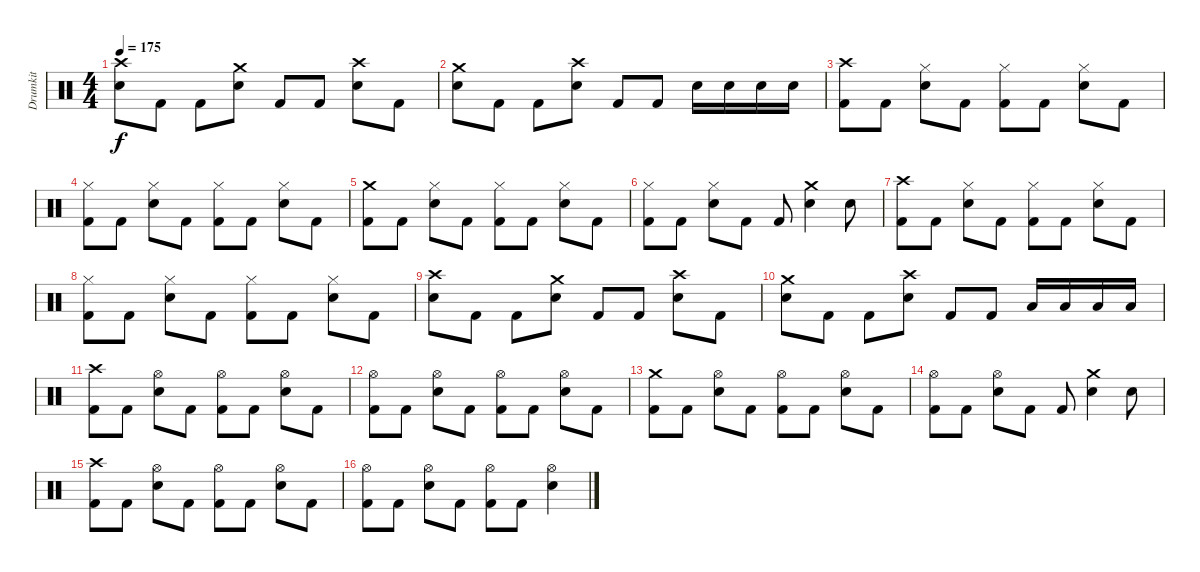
\track ("Drumkit" "Drumkit") {instrument percussion}
\staff {score}
\articulation defaults
\ts (4 4)
\tempo 175
\clef neutral
\ks c
("Crash high (hit)" "Electric Snare (hit)").8{dy f} "Kick (hit) 2".8 "Kick (hit) 2".8 ("Crash medium (hit)" "Electric Snare (hit)").8 "Kick (hit) 2".8 "Kick (hit) 2".8 ("Crash high (hit)" "Electric Snare (hit)").8 "Kick (hit) 2".8 |
("Crash medium (hit)" "Electric Snare (hit)").8 "Kick (hit) 2".8 "Kick (hit) 2".8 ("Crash high (hit)" "Electric Snare (hit)").8 "Kick (hit) 2".8 "Kick (hit) 2".8 "Electric Snare (hit)".16 "Electric Snare (hit)".16 "Electric Snare (hit)".16 "Electric Snare (hit)".16 |
("Crash high (hit)" "Kick (hit) 2").8 "Kick (hit) 2".8 ("Hi-Hat (closed)" "Electric Snare (hit)").8 "Kick (hit) 2".8 ("Hi-Hat (closed)" "Kick (hit) 2").8 "Kick (hit) 2".8 ("Hi-Hat (closed)" "Electric Snare (hit)").8 "Kick (hit) 2".8 |
("Hi-Hat (closed)" "Kick (hit) 2").8 "Kick (hit) 2".8 ("Hi-Hat (closed)" "Electric Snare (hit)").8 "Kick (hit) 2".8 ("Hi-Hat (closed)" "Kick (hit) 2").8 "Kick (hit) 2".8 ("Hi-Hat (closed)" "Electric Snare (hit)").8 "Kick (hit) 2".8 |
("Crash medium (hit)" "Kick (hit) 2").8 "Kick (hit) 2".8 ("Hi-Hat (closed)" "Electric Snare (hit)").8 "Kick (hit) 2".8 ("Hi-Hat (closed)" "Kick (hit) 2").8 "Kick (hit) 2".8 ("Hi-Hat (closed)" "Electric Snare (hit)").8 "Kick (hit) 2".8 |
("Hi-Hat (closed)" "Kick (hit) 2").8 "Kick (hit) 2".8 ("Hi-Hat (closed)" "Electric Snare (hit)").8 "Kick (hit) 2".8 "Kick (hit) 2".8 ("Crash medium (hit)" "Electric Snare (hit)").4 "Electric Snare (hit)".8 |
("Crash high (hit)" "Kick (hit) 2").8 "Kick (hit) 2".8 ("Hi-Hat (closed)" "Electric Snare (hit)").8 "Kick (hit) 2".8 ("Hi-Hat (closed)" "Kick (hit) 2").8 "Kick (hit) 2".8 ("Hi-Hat (closed)" "Electric Snare (hit)").8 "Kick (hit) 2".8 |
("Hi-Hat (closed)" "Kick (hit) 2").8 "Kick (hit) 2".8 ("Hi-Hat (closed)" "Electric Snare (hit)").8 "Kick (hit) 2".8 ("Hi-Hat (closed)" "Kick (hit) 2").8 "Kick (hit) 2".8 ("Hi-Hat (closed)" "Electric Snare (hit)").8 "Kick (hit) 2".8 |
("Crash high (hit)" "Electric Snare (hit)").8 "Kick (hit) 2".8 "Kick (hit) 2".8 ("Crash medium (hit)" "Electric Snare (hit)").8 "Kick (hit) 2".8 "Kick (hit) 2".8 ("Crash high (hit)" "Electric Snare (hit)").8 "Kick (hit) 2".8 |
("Crash medium (hit)" "Electric Snare (hit)").8 "Kick (hit) 2".8 "Kick (hit) 2".8 ("Crash high (hit)" "Electric Snare (hit)").8 "Kick (hit) 2".8 "Kick (hit) 2".8 "Low Tom (hit)".16 "Low Tom (hit)".16 "Low Tom (hit)".16 "Low Tom (hit)".16 |
("Crash high (hit)" "Kick (hit) 2").8 "Kick (hit) 2".8 ("Hi-Hat (open)" "Electric Snare (hit)").8 "Kick (hit) 2".8 ("Hi-Hat (open)" "Kick (hit) 2").8 "Kick (hit) 2".8 ("Hi-Hat (open)" "Electric Snare (hit)").8 "Kick (hit) 2".8 |
("Hi-Hat (open)" "Kick (hit) 2").8 "Kick (hit) 2".8 ("Hi-Hat (open)" "Electric Snare (hit)").8 "Kick (hit) 2".8 ("Hi-Hat (open)" "Kick (hit) 2").8 "Kick (hit) 2".8 ("Hi-Hat (open)" "Electric Snare (hit)").8 "Kick (hit) 2".8 |
("Crash medium (hit)" "Kick (hit) 2").8 "Kick (hit) 2".8 ("Hi-Hat (open)" "Electric Snare (hit)").8 "Kick (hit) 2".8 ("Hi-Hat (open)" "Kick (hit) 2").8 "Kick (hit) 2".8 ("Hi-Hat (open)" "Electric Snare (hit)").8 "Kick (hit) 2".8 |
("Hi-Hat (open)" "Kick (hit) 2").8 "Kick (hit) 2".8 ("Hi-Hat (open)" "Electric Snare (hit)").8 "Kick (hit) 2".8 "Kick (hit) 2".8 ("Crash medium (hit)" "Electric Snare (hit)").4 "Electric Snare (hit)".8 |
("Crash high (hit)" "Kick (hit) 2").8 "Kick (hit) 2".8 ("Hi-Hat (open)" "Electric Snare (hit)").8 "Kick (hit) 2".8 ("Hi-Hat (open)" "Kick (hit) 2").8 "Kick (hit) 2".8 ("Hi-Hat (open)" "Electric Snare (hit)").8 "Kick (hit) 2".8 |
("Hi-Hat (open)" "Kick (hit) 2").8 "Kick (hit) 2".8 ("Hi-Hat (open)" "Electric Snare (hit)").8 "Kick (hit) 2".8 ("Hi-Hat (open)" "Kick (hit) 2").8 "Kick (hit) 2".8 ("Hi-Hat (open)" "Electric Snare (hit)").4
